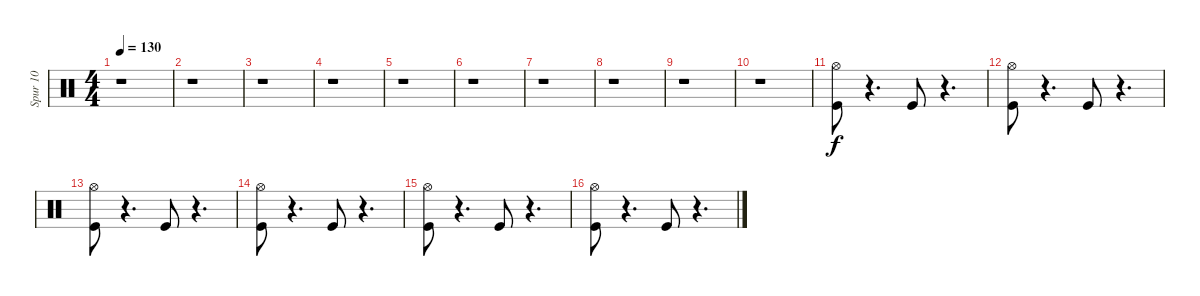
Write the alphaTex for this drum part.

\track ("Spur 10" "Spur 10") {instrument percussion}
\staff {score}
\articulation defaults
\ts (4 4)
\tempo 130
\clef neutral
\ks c
r.1{dy f} |
r.1 |
r.1 |
r.1 |
r.1 |
r.1 |
r.1 |
r.1 |
r.1 |
r.1 |
("Kick (hit)" "Hi-Hat (open)").8 r.4{d} "Kick (hit)".8 r.4{d} |
("Hi-Hat (open)" "Kick (hit)").8 r.4{d} "Kick (hit)".8 r.4{d} |
("Kick (hit)" "Hi-Hat (open)").8 r.4{d} "Kick (hit)".8 r.4{d} |
("Hi-Hat (open)" "Kick (hit)").8 r.4{d} "Kick (hit)".8 r.4{d} |
("Kick (hit)" "Hi-Hat (open)").8 r.4{d} "Kick (hit)".8 r.4{d} |
("Hi-Hat (open)" "Kick (hit)").8 r.4{d} "Kick (hit)".8 r.4{d}
